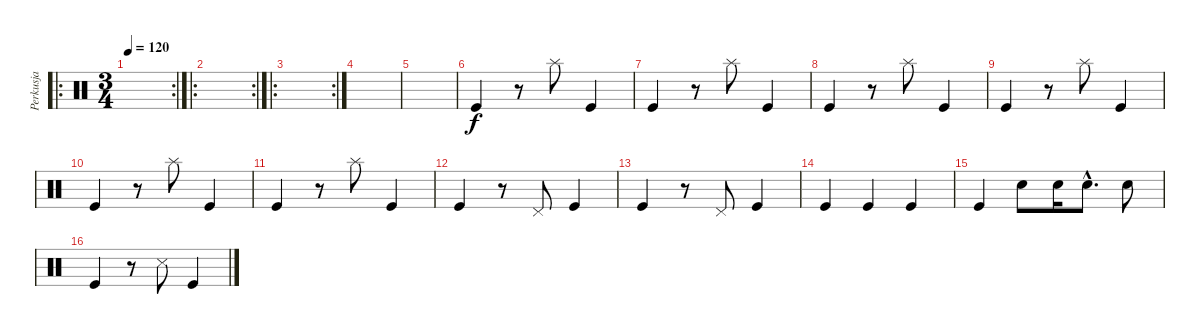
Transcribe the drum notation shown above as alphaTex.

\track ("Perkusja" "Perkusja") {instrument percussion}
\staff {score}
\articulation defaults
\ro
\rc 2
\ts (3 4)
\tempo 120
\clef neutral
\ks c
|
\ro
\rc 2
|
\ro
\rc 2
|
|
|
"Kick (hit)".4 r.8 "Splash (hit)".8 "Kick (hit)".4 |
"Kick (hit)".4 r.8 "Splash (hit)".8 "Kick (hit)".4 |
"Kick (hit)".4 r.8 "Splash (hit)".8 "Kick (hit)".4 |
"Kick (hit)".4 r.8 "Splash (hit)".8 "Kick (hit)".4 |
"Kick (hit)".4 r.8 "Splash (hit)".8 "Kick (hit)".4 |
"Kick (hit)".4 r.8 "Splash (hit)".8 "Kick (hit)".4 |
"Kick (hit)".4 r.8 "Pedal Hi-Hat (hit)".8 "Kick (hit)".4 |
"Kick (hit)".4 r.8 "Pedal Hi-Hat (hit)".8 "Kick (hit)".4 |
"Kick (hit)".4 "Kick (hit)".4 "Kick (hit)".4 |
"Kick (hit)".4 "Electric Snare (hit)".8 "Electric Snare (hit)".16 "Electric Snare (hit)"{hac}.8{d} "Electric Snare (hit)".8 |
"Kick (hit)".4 r.8 "Snare (side stick) 3".8 "Kick (hit)".4
